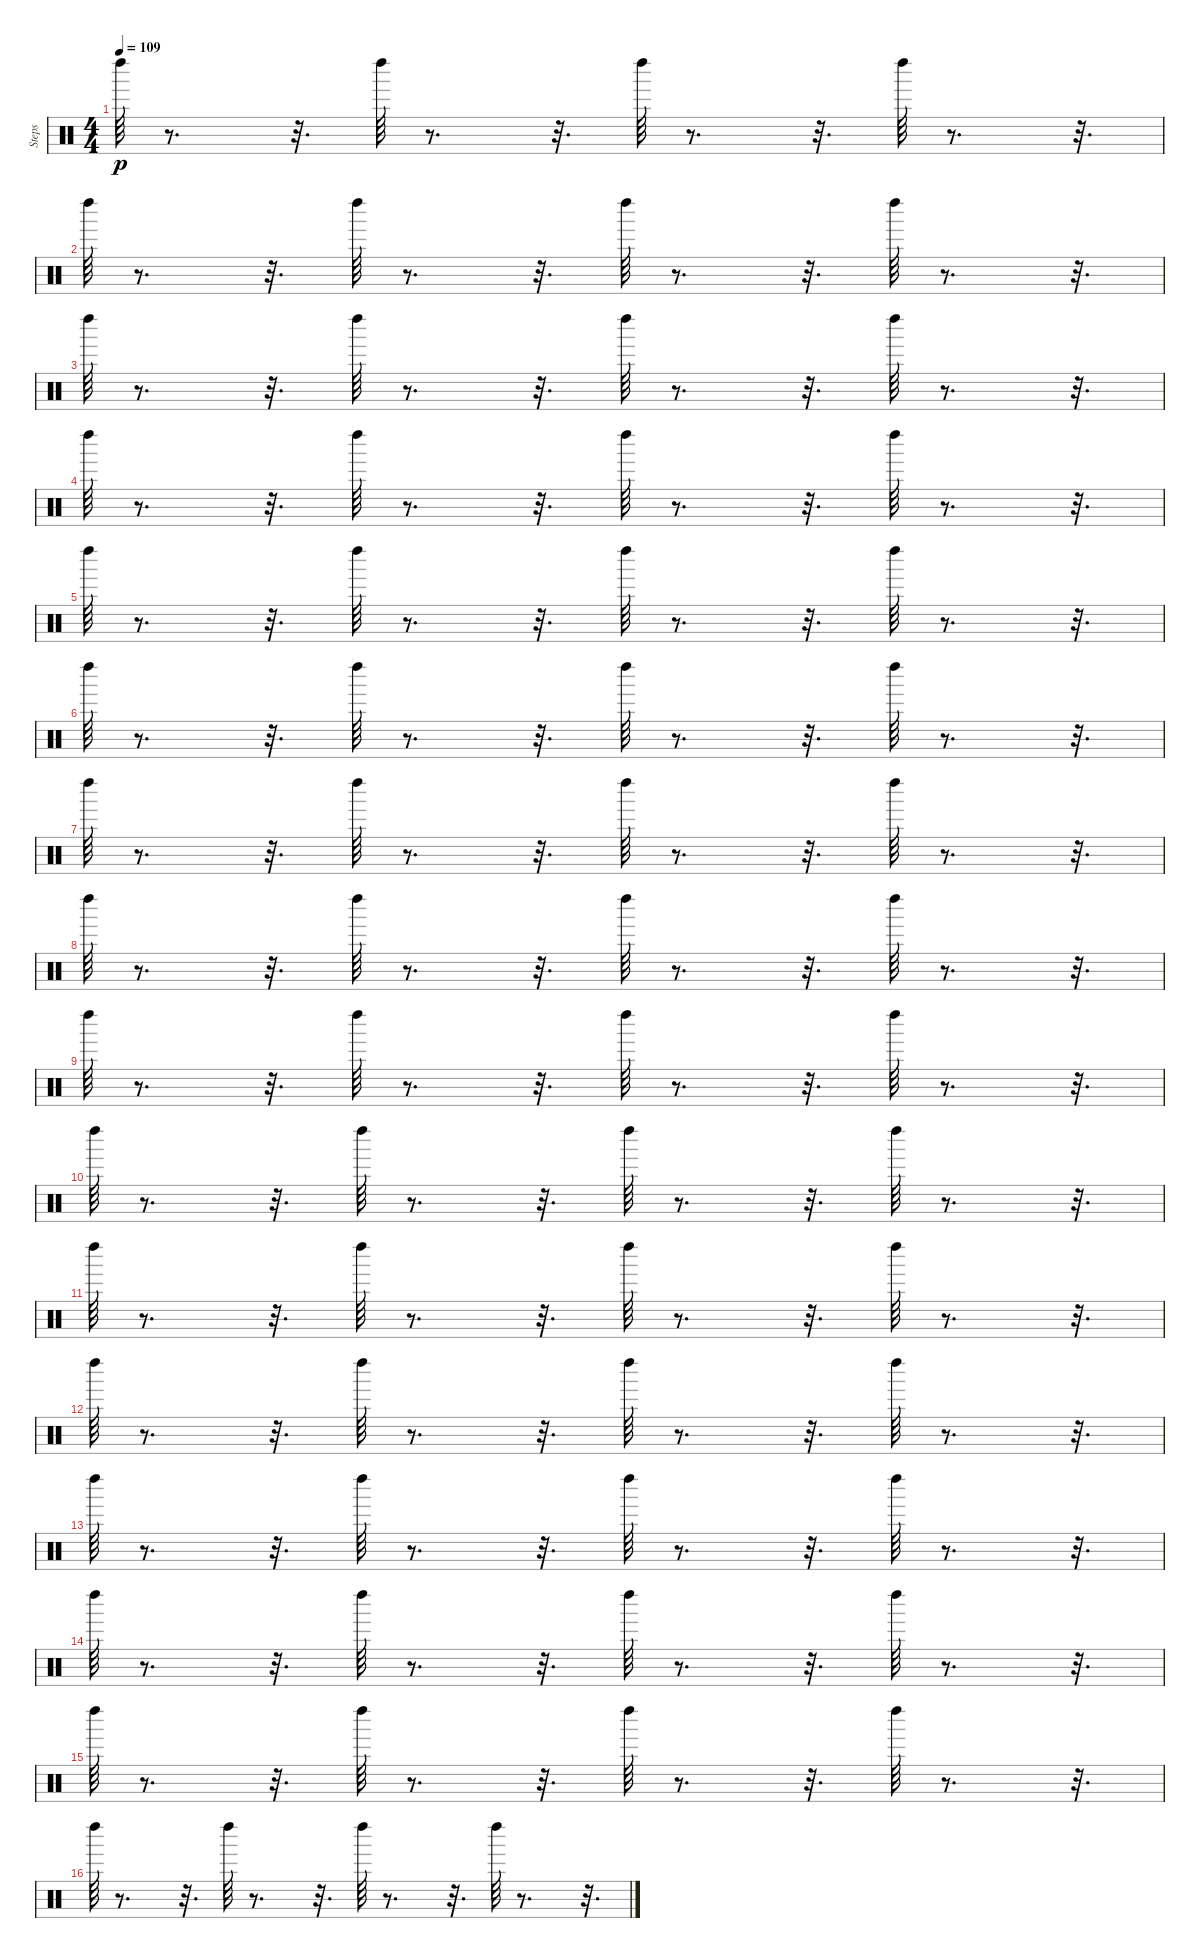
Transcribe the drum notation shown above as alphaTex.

\track ("Steps" "Steps") {instrument percussion}
\staff {score}
\articulation defaults
\ts (4 4)
\tempo 109
\clef neutral
\ks c "Left Maraca (hit)".64{dy p}
r.8{d} r.32{d} "Left Maraca (hit)".64{volume 5} r.8{d} r.32{d} "Left Maraca (hit)".64{volume 6} r.8{d} r.32{d} "Left Maraca (hit)".64{volume 6} r.8{d} r.32{d} |
"Left Maraca (hit)".64{volume 6} r.8{d} r.32{d} "Left Maraca (hit)".64{volume 7} r.8{d} r.32{d} "Left Maraca (hit)".64{volume 7} r.8{d} r.32{d} "Left Maraca (hit)".64{volume 8} r.8{d} r.32{d} |
"Left Maraca (hit)".64{volume 8} r.8{d} r.32{d} "Left Maraca (hit)".64{volume 8} r.8{d} r.32{d} "Left Maraca (hit)".64{volume 9} r.8{d} r.32{d} "Left Maraca (hit)".64{volume 9} r.8{d} r.32{d} |
"Left Maraca (hit)".64{volume 10} r.8{d} r.32{d} "Left Maraca (hit)".64{volume 10} r.8{d} r.32{d} "Left Maraca (hit)".64{volume 10} r.8{d} r.32{d} "Left Maraca (hit)".64{volume 11} r.8{d} r.32{d} |
"Left Maraca (hit)".64{volume 11} r.8{d} r.32{d} "Left Maraca (hit)".64{volume 12} r.8{d} r.32{d} "Left Maraca (hit)".64{volume 12} r.8{d} r.32{d} "Left Maraca (hit)".64{volume 12} r.8{d} r.32{d} |
"Left Maraca (hit)".64{volume 13} r.8{d} r.32{d} "Left Maraca (hit)".64{volume 13} r.8{d} r.32{d} "Left Maraca (hit)".64{volume 14} r.8{d} r.32{d} "Left Maraca (hit)".64{volume 14} r.8{d} r.32{d} |
"Left Maraca (hit)".64{volume 14} r.8{d} r.32{d} "Left Maraca (hit)".64{volume 15} r.8{d} r.32{d} "Left Maraca (hit)".64{volume 15} r.8{d} r.32{d} "Left Maraca (hit)".64{volume 15} r.8{d} r.32{d} |
"Left Maraca (hit)".64{volume 16} r.8{d} r.32{d} "Left Maraca (hit)".64 r.8{d} r.32{d} "Left Maraca (hit)".64 r.8{d} r.32{d} "Left Maraca (hit)".64 r.8{d} r.32{d} |
"Left Maraca (hit)".64 r.8{d} r.32{d} "Left Maraca (hit)".64 r.8{d} r.32{d} "Left Maraca (hit)".64 r.8{d} r.32{d} "Left Maraca (hit)".64 r.8{d} r.32{d} |
"Left Maraca (hit)".64 r.8{d} r.32{d} "Left Maraca (hit)".64 r.8{d} r.32{d} "Left Maraca (hit)".64 r.8{d} r.32{d} "Left Maraca (hit)".64 r.8{d} r.32{d} |
"Left Maraca (hit)".64 r.8{d} r.32{d} "Left Maraca (hit)".64 r.8{d} r.32{d} "Left Maraca (hit)".64 r.8{d} r.32{d} "Left Maraca (hit)".64 r.8{d} r.32{d} |
"Left Maraca (hit)".64 r.8{d} r.32{d} "Left Maraca (hit)".64 r.8{d} r.32{d} "Left Maraca (hit)".64 r.8{d} r.32{d} "Left Maraca (hit)".64 r.8{d} r.32{d} |
"Left Maraca (hit)".64 r.8{d} r.32{d} "Left Maraca (hit)".64 r.8{d} r.32{d} "Left Maraca (hit)".64 r.8{d} r.32{d} "Left Maraca (hit)".64 r.8{d} r.32{d} |
"Left Maraca (hit)".64 r.8{d} r.32{d} "Left Maraca (hit)".64 r.8{d} r.32{d} "Left Maraca (hit)".64 r.8{d} r.32{d} "Left Maraca (hit)".64 r.8{d} r.32{d} |
"Left Maraca (hit)".64 r.8{d} r.32{d} "Left Maraca (hit)".64 r.8{d} r.32{d} "Left Maraca (hit)".64 r.8{d} r.32{d} "Left Maraca (hit)".64 r.8{d} r.32{d} |
"Left Maraca (hit)".64 r.8{d} r.32{d} "Left Maraca (hit)".64 r.8{d} r.32{d} "Left Maraca (hit)".64 r.8{d} r.32{d} "Left Maraca (hit)".64 r.8{d} r.32{d}
